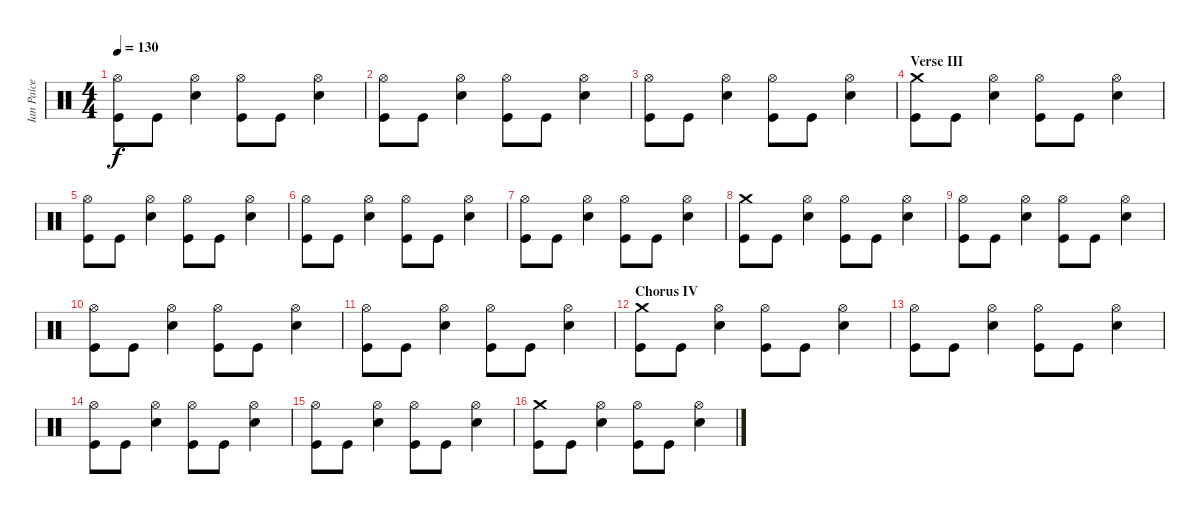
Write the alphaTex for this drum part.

\track ("Ian Paice - Drums" "Ian Paice ") {instrument percussion}
\staff {score}
\articulation defaults
\ts (4 4)
\tempo 130
\clef neutral
\ks c
("Hi-Hat (open)" "Kick (hit)").8{dy f} "Kick (hit)".8 ("Hi-Hat (open)" "Snare (hit) 2").4 ("Hi-Hat (open)" "Kick (hit)").8 "Kick (hit)".8 ("Hi-Hat (open)" "Snare (hit) 2").4 |
("Hi-Hat (open)" "Kick (hit)").8 "Kick (hit)".8 ("Hi-Hat (open)" "Snare (hit) 2").4 ("Hi-Hat (open)" "Kick (hit)").8 "Kick (hit)".8 ("Hi-Hat (open)" "Snare (hit) 2").4 |
("Hi-Hat (open)" "Kick (hit)").8 "Kick (hit)".8 ("Hi-Hat (open)" "Snare (hit) 2").4 ("Hi-Hat (open)" "Kick (hit)").8 "Kick (hit)".8 ("Hi-Hat (open)" "Snare (hit) 2").4 |
\section ("" "Verse III")
("Crash medium (hit)" "Kick (hit)").8 "Kick (hit)".8 ("Hi-Hat (open)" "Snare (hit) 2").4 ("Hi-Hat (open)" "Kick (hit)").8 "Kick (hit)".8 ("Hi-Hat (open)" "Snare (hit) 2").4 |
("Hi-Hat (open)" "Kick (hit)").8 "Kick (hit)".8 ("Hi-Hat (open)" "Snare (hit) 2").4 ("Hi-Hat (open)" "Kick (hit)").8 "Kick (hit)".8 ("Hi-Hat (open)" "Snare (hit) 2").4 |
("Hi-Hat (open)" "Kick (hit)").8 "Kick (hit)".8 ("Hi-Hat (open)" "Snare (hit) 2").4 ("Hi-Hat (open)" "Kick (hit)").8 "Kick (hit)".8 ("Hi-Hat (open)" "Snare (hit) 2").4 |
("Hi-Hat (open)" "Kick (hit)").8 "Kick (hit)".8 ("Hi-Hat (open)" "Snare (hit) 2").4 ("Hi-Hat (open)" "Kick (hit)").8 "Kick (hit)".8 ("Hi-Hat (open)" "Snare (hit) 2").4 |
("Crash medium (hit)" "Kick (hit)").8 "Kick (hit)".8 ("Hi-Hat (open)" "Snare (hit) 2").4 ("Hi-Hat (open)" "Kick (hit)").8 "Kick (hit)".8 ("Hi-Hat (open)" "Snare (hit) 2").4 |
("Hi-Hat (open)" "Kick (hit)").8 "Kick (hit)".8 ("Hi-Hat (open)" "Snare (hit) 2").4 ("Hi-Hat (open)" "Kick (hit)").8 "Kick (hit)".8 ("Hi-Hat (open)" "Snare (hit) 2").4 |
("Hi-Hat (open)" "Kick (hit)").8 "Kick (hit)".8 ("Hi-Hat (open)" "Snare (hit) 2").4 ("Hi-Hat (open)" "Kick (hit)").8 "Kick (hit)".8 ("Hi-Hat (open)" "Snare (hit) 2").4 |
("Hi-Hat (open)" "Kick (hit)").8 "Kick (hit)".8 ("Hi-Hat (open)" "Snare (hit) 2").4 ("Hi-Hat (open)" "Kick (hit)").8 "Kick (hit)".8 ("Hi-Hat (open)" "Snare (hit) 2").4 |
\section ("" "Chorus IV")
("Crash medium (hit)" "Kick (hit)").8 "Kick (hit)".8 ("Hi-Hat (open)" "Snare (hit) 2").4 ("Hi-Hat (open)" "Kick (hit)").8 "Kick (hit)".8 ("Hi-Hat (open)" "Snare (hit) 2").4 |
("Hi-Hat (open)" "Kick (hit)").8 "Kick (hit)".8 ("Hi-Hat (open)" "Snare (hit) 2").4 ("Hi-Hat (open)" "Kick (hit)").8 "Kick (hit)".8 ("Hi-Hat (open)" "Snare (hit) 2").4 |
("Hi-Hat (open)" "Kick (hit)").8 "Kick (hit)".8 ("Hi-Hat (open)" "Snare (hit) 2").4 ("Hi-Hat (open)" "Kick (hit)").8 "Kick (hit)".8 ("Hi-Hat (open)" "Snare (hit) 2").4 |
("Hi-Hat (open)" "Kick (hit)").8 "Kick (hit)".8 ("Hi-Hat (open)" "Snare (hit) 2").4 ("Hi-Hat (open)" "Kick (hit)").8 "Kick (hit)".8 ("Hi-Hat (open)" "Snare (hit) 2").4 |
("Crash medium (hit)" "Kick (hit)").8 "Kick (hit)".8 ("Hi-Hat (open)" "Snare (hit) 2").4 ("Hi-Hat (open)" "Kick (hit)").8 "Kick (hit)".8 ("Hi-Hat (open)" "Snare (hit) 2").4
